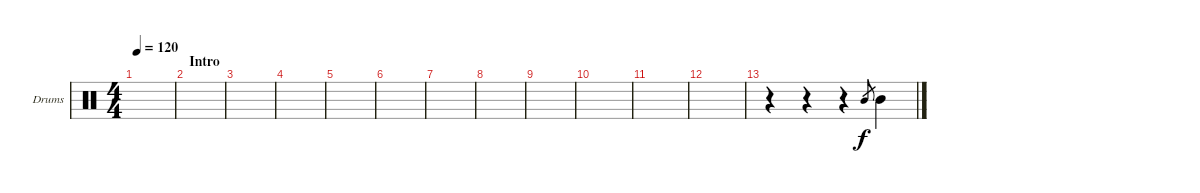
\defaultSystemsLayout 4
\bracketExtendMode groupsimilarinstruments
\firstSystemTrackNameOrientation horizontal
\otherSystemsTrackNameOrientation horizontal
\track ("Drums Aux" "Drums") {instrument percussion}
\staff {score}
\articulation defaults
\ts (4 4)
\tempo 120
\clef neutral
\ks c
|
\section ("" "Intro")
\scale
0.472222 |
\scale
0.263889 |
\scale
0.263889 |
\scale
0.333333 |
\scale
0.333333 |
\scale
0.333333 |
\scale
0.333333 |
\scale
0.333333 |
\scale
0.333333 |
\scale
0.333333 |
\scale
0.333333 |
\scale
0.333333 r.4 r.4 r.4 "Mid Tom (hit)".8{gr} "Mid Tom (hit)".4 |
\scale
0.333333 |
\scale
0.333333 |
\scale
0.333333
